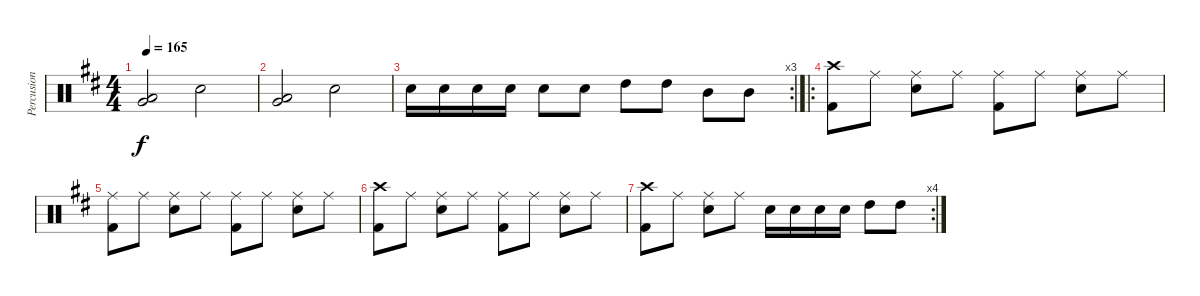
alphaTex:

\track ("Percusion" "Percusion") {instrument percussion}
\staff {score}
\articulation defaults
\ts (4 4)
\tempo 165
\clef neutral
\ks d
("Very Low Tom (hit)" "Low Floor Tom (hit)").2{dy f} "Electric Snare (hit)".2 |
("Very Low Tom (hit)" "Low Floor Tom (hit)").2 "Electric Snare (hit)".2 |
\rc 3 "Electric Snare (hit)".16 "Electric Snare (hit)".16 "Electric Snare (hit)".16 "Electric Snare (hit)".16 "Electric Snare (hit)".8 "Electric Snare (hit)".8 "High Tom (hit)".8 "High Tom (hit)".8 "Mid Tom (hit)".8 "Mid Tom (hit)".8
|
\ro
("Crash high (hit)" "Kick (hit) 2").8 "Ride (middle)".8 ("Ride (middle)" "Electric Snare (hit)").8 "Ride (middle)".8 ("Ride (middle)" "Kick (hit) 2").8 "Ride (middle)".8 ("Ride (middle)" "Electric Snare (hit)").8 "Ride (middle)".8 |
("Ride (middle)" "Kick (hit) 2").8 "Ride (middle)".8 ("Ride (middle)" "Electric Snare (hit)").8 "Ride (middle)".8 ("Ride (middle)" "Kick (hit) 2").8 "Ride (middle)".8 ("Ride (middle)" "Electric Snare (hit)").8 "Ride (middle)".8 |
("Crash high (hit)" "Kick (hit) 2").8 "Ride (middle)".8 ("Ride (middle)" "Electric Snare (hit)").8 "Ride (middle)".8 ("Ride (middle)" "Kick (hit) 2").8 "Ride (middle)".8 ("Ride (middle)" "Electric Snare (hit)").8 "Ride (middle)".8 |
\rc 4
("Crash high (hit)" "Kick (hit) 2").8 "Ride (middle)".8 ("Ride (middle)" "Electric Snare (hit)").8 "Ride (middle)".8 "Electric Snare (hit)".16 "Electric Snare (hit)".16 "Electric Snare (hit)".16 "Electric Snare (hit)".16 "High Tom (hit)".8 "High Tom (hit)".8
